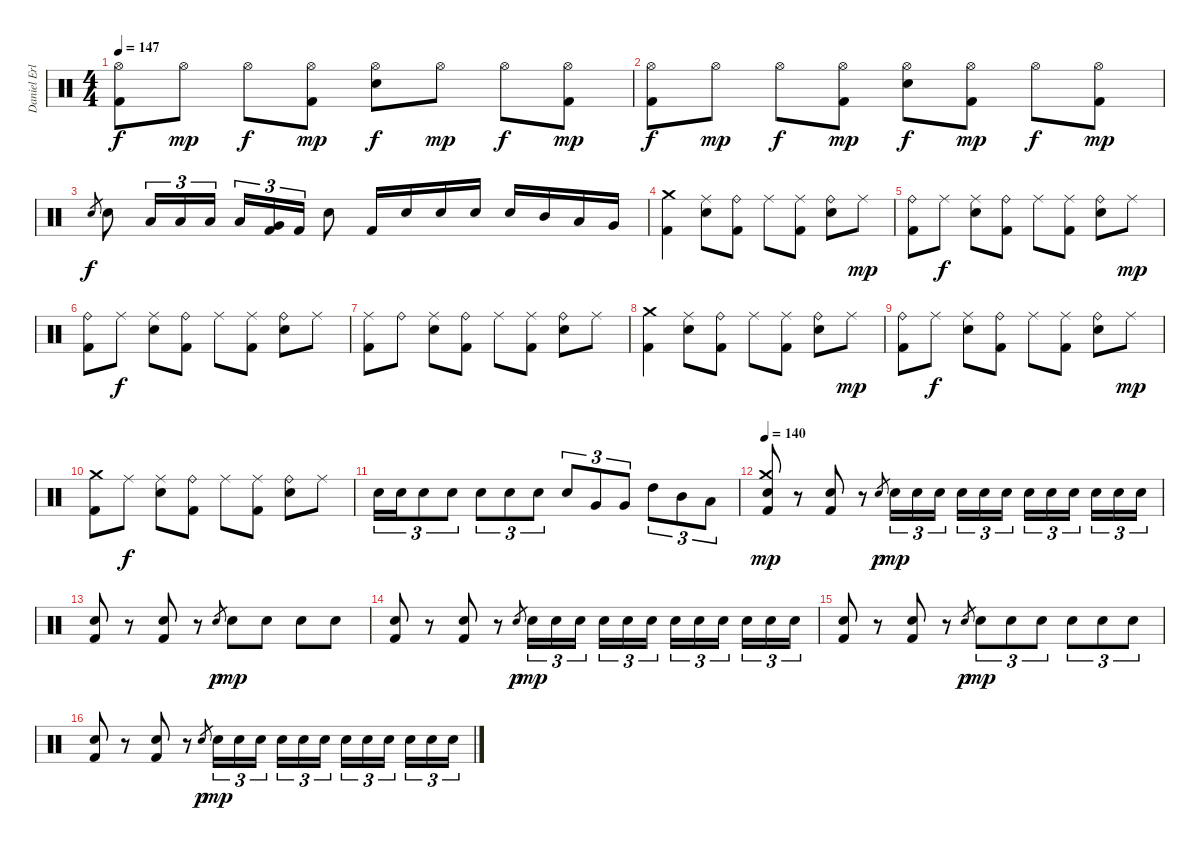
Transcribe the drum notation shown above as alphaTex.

\track ("Daniel Erlandsson" "Daniel Erl") {instrument percussion}
\staff {score}
\articulation defaults
\ts (4 4)
\tempo 147
\clef neutral
\ks c
("Hi-Hat (open)" "Kick (hit) 2").8{dy f} "Hi-Hat (open)".8{dy mp} "Hi-Hat (open)".8{dy f} ("Hi-Hat (open)" "Kick (hit) 2").8{dy mp} ("Hi-Hat (open)" "Electric Snare (hit)").8{dy f} "Hi-Hat (open)".8{dy mp} "Hi-Hat (open)".8{dy f} ("Hi-Hat (open)" "Kick (hit) 2").8{dy mp} |
("Hi-Hat (open)" "Kick (hit) 2").8{dy f} "Hi-Hat (open)".8{dy mp} "Hi-Hat (open)".8{dy f} ("Hi-Hat (open)" "Kick (hit) 2").8{dy mp} ("Hi-Hat (open)" "Electric Snare (hit)").8{dy f} ("Hi-Hat (open)" "Kick (hit) 2").8{dy mp} "Hi-Hat (open)".8{dy f} ("Hi-Hat (open)" "Kick (hit) 2").8{dy mp} |
"Electric Snare (hit)".8{gr dy f} "Electric Snare (hit)".8 "Low Tom (hit)".16{tu (3 2)} "Low Tom (hit)".16{tu (3 2)} "Low Tom (hit)".16{tu (3 2)} "Low Tom (hit)".16{tu (3 2)} ("Very Low Tom (hit)" "Kick (hit) 2").16{tu (3 2)} "Kick (hit) 2".16{tu (3 2)} "Electric Snare (hit)".8 "Kick (hit) 2".16 "Electric Snare (hit)".16 "Electric Snare (hit)".16 "Electric Snare (hit)".16 "Electric Snare (hit)".16 "Mid Tom (hit)".16 "Low Tom (hit)".16 "Very Low Tom (hit)".16 |
("Crash medium (hit)" "Kick (hit) 2").4 ("Ride (middle)" "Electric Snare (hit)").8 ("Ride (bell)" "Kick (hit) 2").8 "Ride (middle)".8 ("Ride (middle)" "Kick (hit) 2").8 ("Ride (bell)" "Electric Snare (hit)").8 "Ride (middle)".8{dy mp} |
("Ride (bell)" "Kick (hit) 2").8 "Ride (middle)".8{dy f} ("Ride (middle)" "Electric Snare (hit)").8 ("Ride (bell)" "Kick (hit) 2").8 "Ride (middle)".8 ("Ride (middle)" "Kick (hit) 2").8 ("Ride (bell)" "Electric Snare (hit)").8 "Ride (middle)".8{dy mp} |
("Ride (bell)" "Kick (hit) 2").8 "Ride (middle)".8{dy f} ("Ride (middle)" "Electric Snare (hit)").8 ("Ride (bell)" "Kick (hit) 2").8 "Ride (middle)".8 ("Ride (middle)" "Kick (hit) 2").8 ("Ride (bell)" "Electric Snare (hit)").8 "Ride (middle)".8 |
("Ride (middle)" "Kick (hit) 2").8 "Ride (bell)".8 ("Ride (middle)" "Electric Snare (hit)").8 ("Ride (bell)" "Kick (hit) 2").8 "Ride (middle)".8 ("Ride (middle)" "Kick (hit) 2").8 ("Ride (bell)" "Electric Snare (hit)").8 "Ride (middle)".8 |
("Crash medium (hit)" "Kick (hit) 2").4 ("Ride (middle)" "Electric Snare (hit)").8 ("Ride (bell)" "Kick (hit) 2").8 "Ride (middle)".8 ("Ride (middle)" "Kick (hit) 2").8 ("Ride (bell)" "Electric Snare (hit)").8 "Ride (middle)".8{dy mp} |
("Ride (bell)" "Kick (hit) 2").8 "Ride (middle)".8{dy f} ("Ride (middle)" "Electric Snare (hit)").8 ("Ride (bell)" "Kick (hit) 2").8 "Ride (middle)".8 ("Ride (middle)" "Kick (hit) 2").8 ("Ride (bell)" "Electric Snare (hit)").8 "Ride (middle)".8{dy mp} |
("Crash medium (hit)" "Kick (hit) 2").8 "Ride (middle)".8{dy f} ("Ride (middle)" "Electric Snare (hit)").8 ("Ride (bell)" "Kick (hit) 2").8 "Ride (middle)".8 ("Ride (middle)" "Kick (hit) 2").8 ("Ride (bell)" "Electric Snare (hit)").8 "Ride (middle)".8 |
"Electric Snare (hit)".16{tu (3 2)} "Electric Snare (hit)".16{tu (3 2)} "Electric Snare (hit)".8{tu (3 2)} "Electric Snare (hit)".8{tu (3 2)} "Electric Snare (hit)".8{tu (3 2)} "Electric Snare (hit)".8{tu (3 2)} "Electric Snare (hit)".8{tu (3 2)} "Electric Snare (hit)".8{tu (3 2)} "Very Low Tom (hit)".8{tu (3 2)} "Very Low Tom (hit)".8{tu (3 2)} "High Tom (hit)".8{tu (3 2)} "Mid Tom (hit)".8{tu (3 2)} "Low Tom (hit)".8{tu (3 2)} |
\tempo 140
("Crash medium (hit)" "Snare (hit) 2" "Kick (hit) 2").8{dy mp} r.8 ("Snare (hit) 2" "Kick (hit) 2").8 r.8 "Snare (hit) 2".8{gr dy p} "Snare (hit) 2".16{tu (3 2) dy mp} "Snare (hit) 2".16{tu (3 2)} "Snare (hit) 2".16{tu (3 2)} "Snare (hit) 2".16{tu (3 2)} "Snare (hit) 2".16{tu (3 2)} "Snare (hit) 2".16{tu (3 2)} "Snare (hit) 2".16{tu (3 2)} "Snare (hit) 2".16{tu (3 2)} "Snare (hit) 2".16{tu (3 2)} "Snare (hit) 2".16{tu (3 2)} "Snare (hit) 2".16{tu (3 2)} "Snare (hit) 2".16{tu (3 2)} |
("Snare (hit) 2" "Kick (hit) 2").8 r.8 ("Snare (hit) 2" "Kick (hit) 2").8 r.8 "Snare (hit) 2".8{gr dy p} "Snare (hit) 2".8{dy mp} "Snare (hit) 2".8 "Snare (hit) 2".8 "Snare (hit) 2".8 |
("Snare (hit) 2" "Kick (hit) 2").8 r.8 ("Snare (hit) 2" "Kick (hit) 2").8 r.8 "Snare (hit) 2".8{gr dy p} "Snare (hit) 2".16{tu (3 2) dy mp} "Snare (hit) 2".16{tu (3 2)} "Snare (hit) 2".16{tu (3 2)} "Snare (hit) 2".16{tu (3 2)} "Snare (hit) 2".16{tu (3 2)} "Snare (hit) 2".16{tu (3 2)} "Snare (hit) 2".16{tu (3 2)} "Snare (hit) 2".16{tu (3 2)} "Snare (hit) 2".16{tu (3 2)} "Snare (hit) 2".16{tu (3 2)} "Snare (hit) 2".16{tu (3 2)} "Snare (hit) 2".16{tu (3 2)} |
("Snare (hit) 2" "Kick (hit) 2").8 r.8 ("Snare (hit) 2" "Kick (hit) 2").8 r.8 "Snare (hit) 2".8{gr dy p} "Snare (hit) 2".8{tu (3 2) dy mp} "Snare (hit) 2".8{tu (3 2)} "Snare (hit) 2".8{tu (3 2)} "Snare (hit) 2".8{tu (3 2)} "Snare (hit) 2".8{tu (3 2)} "Snare (hit) 2".8{tu (3 2)} |
("Snare (hit) 2" "Kick (hit) 2").8 r.8 ("Snare (hit) 2" "Kick (hit) 2").8 r.8 "Snare (hit) 2".8{gr dy p} "Snare (hit) 2".16{tu (3 2) dy mp} "Snare (hit) 2".16{tu (3 2)} "Snare (hit) 2".16{tu (3 2)} "Snare (hit) 2".16{tu (3 2)} "Snare (hit) 2".16{tu (3 2)} "Snare (hit) 2".16{tu (3 2)} "Snare (hit) 2".16{tu (3 2)} "Snare (hit) 2".16{tu (3 2)} "Snare (hit) 2".16{tu (3 2)} "Snare (hit) 2".16{tu (3 2)} "Snare (hit) 2".16{tu (3 2)} "Snare (hit) 2".16{tu (3 2)}
